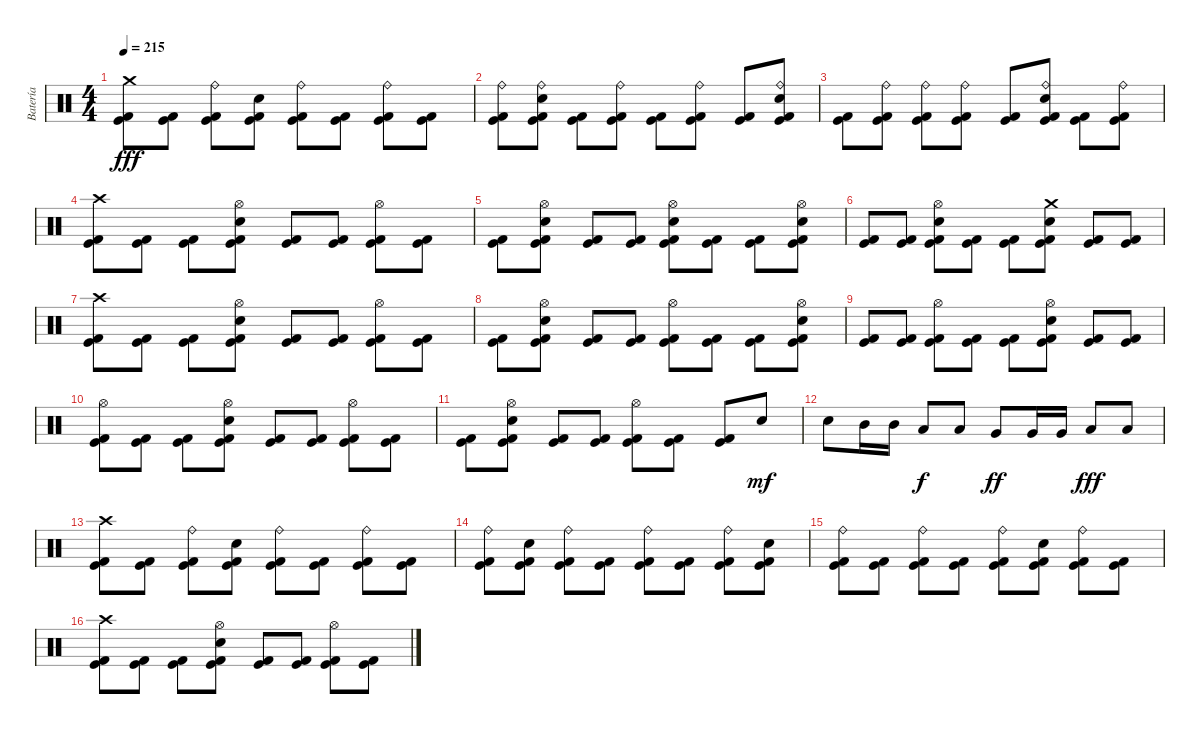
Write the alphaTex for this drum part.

\track ("Batería" "Batería") {instrument percussion}
\staff {score}
\articulation defaults
\ts (4 4)
\tempo 215
\clef neutral
\ks c
("Crash medium (hit)" "Kick (hit) 2" "Kick (hit)").8{dy fff} ("Kick (hit) 2" "Kick (hit)").8 ("Ride (bell)" "Kick (hit) 2" "Kick (hit)").8 ("Electric Snare (hit)" "Kick (hit) 2" "Kick (hit)").8 ("Ride (bell)" "Kick (hit) 2" "Kick (hit)").8 ("Kick (hit) 2" "Kick (hit)").8 ("Ride (bell)" "Kick (hit) 2" "Kick (hit)").8 ("Kick (hit) 2" "Kick (hit)").8 |
("Ride (bell)" "Kick (hit) 2" "Kick (hit)").8 ("Ride (bell)" "Electric Snare (hit)" "Kick (hit) 2" "Kick (hit)").8 ("Kick (hit) 2" "Kick (hit)").8 ("Ride (bell)" "Kick (hit) 2" "Kick (hit)").8 ("Kick (hit) 2" "Kick (hit)").8 ("Ride (bell)" "Kick (hit) 2" "Kick (hit)").8 ("Kick (hit) 2" "Kick (hit)").8 ("Ride (bell)" "Electric Snare (hit)" "Kick (hit) 2" "Kick (hit)").8 |
("Kick (hit) 2" "Kick (hit)").8 ("Ride (bell)" "Kick (hit) 2" "Kick (hit)").8 ("Ride (bell)" "Kick (hit) 2" "Kick (hit)").8 ("Ride (bell)" "Kick (hit) 2" "Kick (hit)").8 ("Kick (hit) 2" "Kick (hit)").8 ("Ride (bell)" "Electric Snare (hit)" "Kick (hit) 2" "Kick (hit)").8 ("Kick (hit) 2" "Kick (hit)").8 ("Ride (bell)" "Kick (hit) 2" "Kick (hit)").8 |
("Crash high (hit)" "Kick (hit) 2" "Kick (hit)").8 ("Kick (hit) 2" "Kick (hit)").8 ("Kick (hit) 2" "Kick (hit)").8 ("Hi-Hat (open)" "Electric Snare (hit)" "Kick (hit) 2" "Kick (hit)").8 ("Kick (hit) 2" "Kick (hit)").8 ("Kick (hit) 2" "Kick (hit)").8 ("Hi-Hat (open)" "Kick (hit) 2" "Kick (hit)").8 ("Kick (hit) 2" "Kick (hit)").8 |
("Kick (hit) 2" "Kick (hit)").8 ("Hi-Hat (open)" "Electric Snare (hit)" "Kick (hit) 2" "Kick (hit)").8 ("Kick (hit) 2" "Kick (hit)").8 ("Kick (hit) 2" "Kick (hit)").8 ("Hi-Hat (open)" "Electric Snare (hit)" "Kick (hit) 2" "Kick (hit)").8 ("Kick (hit) 2" "Kick (hit)").8 ("Kick (hit) 2" "Kick (hit)").8 ("Hi-Hat (open)" "Electric Snare (hit)" "Kick (hit) 2" "Kick (hit)").8 |
("Kick (hit) 2" "Kick (hit)").8 ("Kick (hit) 2" "Kick (hit)").8 ("Hi-Hat (open)" "Electric Snare (hit)" "Kick (hit) 2" "Kick (hit)").8 ("Kick (hit) 2" "Kick (hit)").8 ("Kick (hit) 2" "Kick (hit)").8 ("Crash medium (hit)" "Electric Snare (hit)" "Kick (hit) 2" "Kick (hit)").8 ("Kick (hit) 2" "Kick (hit)").8 ("Kick (hit) 2" "Kick (hit)").8 |
("Crash high (hit)" "Kick (hit) 2" "Kick (hit)").8 ("Kick (hit) 2" "Kick (hit)").8 ("Kick (hit) 2" "Kick (hit)").8 ("Hi-Hat (open)" "Electric Snare (hit)" "Kick (hit) 2" "Kick (hit)").8 ("Kick (hit) 2" "Kick (hit)").8 ("Kick (hit) 2" "Kick (hit)").8 ("Hi-Hat (open)" "Kick (hit) 2" "Kick (hit)").8 ("Kick (hit) 2" "Kick (hit)").8 |
("Kick (hit) 2" "Kick (hit)").8 ("Hi-Hat (open)" "Electric Snare (hit)" "Kick (hit) 2" "Kick (hit)").8 ("Kick (hit) 2" "Kick (hit)").8 ("Kick (hit) 2" "Kick (hit)").8 ("Hi-Hat (open)" "Kick (hit) 2" "Kick (hit)").8 ("Kick (hit) 2" "Kick (hit)").8 ("Kick (hit) 2" "Kick (hit)").8 ("Hi-Hat (open)" "Electric Snare (hit)" "Kick (hit) 2" "Kick (hit)").8 |
("Kick (hit) 2" "Kick (hit)").8 ("Kick (hit) 2" "Kick (hit)").8 ("Hi-Hat (open)" "Kick (hit) 2" "Kick (hit)").8 ("Kick (hit) 2" "Kick (hit)").8 ("Kick (hit) 2" "Kick (hit)").8 ("Hi-Hat (open)" "Electric Snare (hit)" "Kick (hit) 2" "Kick (hit)").8 ("Kick (hit) 2" "Kick (hit)").8 ("Kick (hit) 2" "Kick (hit)").8 |
("Hi-Hat (open)" "Kick (hit) 2" "Kick (hit)").8 ("Kick (hit) 2" "Kick (hit)").8 ("Kick (hit) 2" "Kick (hit)").8 ("Hi-Hat (open)" "Electric Snare (hit)" "Kick (hit) 2" "Kick (hit)").8 ("Kick (hit) 2" "Kick (hit)").8 ("Kick (hit) 2" "Kick (hit)").8 ("Hi-Hat (open)" "Kick (hit) 2" "Kick (hit)").8 ("Kick (hit) 2" "Kick (hit)").8 |
("Kick (hit) 2" "Kick (hit)").8 ("Hi-Hat (open)" "Electric Snare (hit)" "Kick (hit) 2" "Kick (hit)").8 ("Kick (hit) 2" "Kick (hit)").8 ("Kick (hit) 2" "Kick (hit)").8 ("Hi-Hat (open)" "Kick (hit) 2" "Kick (hit)").8 ("Kick (hit) 2" "Kick (hit)").8 ("Kick (hit) 2" "Kick (hit)").8 "Electric Snare (hit)".8{dy mf} |
"Electric Snare (hit)".8 "Mid Tom (hit)".16 "Mid Tom (hit)".16 "Low Tom (hit)".8{dy f} "Low Tom (hit)".8 "Very Low Tom (hit)".8{dy ff} "Very Low Tom (hit)".16 "Very Low Tom (hit)".16 "Low Floor Tom (hit)".8{dy fff} "Low Floor Tom (hit)".8 |
("Crash high (hit)" "Kick (hit) 2" "Kick (hit)").8 ("Kick (hit) 2" "Kick (hit)").8 ("Ride (bell)" "Kick (hit) 2" "Kick (hit)").8 ("Electric Snare (hit)" "Kick (hit) 2" "Kick (hit)").8 ("Ride (bell)" "Kick (hit) 2" "Kick (hit)").8 ("Kick (hit) 2" "Kick (hit)").8 ("Ride (bell)" "Kick (hit) 2" "Kick (hit)").8 ("Kick (hit) 2" "Kick (hit)").8 |
("Ride (bell)" "Kick (hit) 2" "Kick (hit)").8 ("Electric Snare (hit)" "Kick (hit) 2" "Kick (hit)").8 ("Ride (bell)" "Kick (hit) 2" "Kick (hit)").8 ("Kick (hit) 2" "Kick (hit)").8 ("Ride (bell)" "Kick (hit) 2" "Kick (hit)").8 ("Kick (hit) 2" "Kick (hit)").8 ("Ride (bell)" "Kick (hit) 2" "Kick (hit)").8 ("Electric Snare (hit)" "Kick (hit) 2" "Kick (hit)").8 |
("Ride (bell)" "Kick (hit) 2" "Kick (hit)").8 ("Kick (hit) 2" "Kick (hit)").8 ("Ride (bell)" "Kick (hit) 2" "Kick (hit)").8 ("Kick (hit) 2" "Kick (hit)").8 ("Ride (bell)" "Kick (hit) 2" "Kick (hit)").8 ("Electric Snare (hit)" "Kick (hit) 2" "Kick (hit)").8 ("Ride (bell)" "Kick (hit) 2" "Kick (hit)").8 ("Kick (hit) 2" "Kick (hit)").8 |
("Crash high (hit)" "Kick (hit) 2" "Kick (hit)").8 ("Kick (hit) 2" "Kick (hit)").8 ("Kick (hit) 2" "Kick (hit)").8 ("Hi-Hat (open)" "Electric Snare (hit)" "Kick (hit) 2" "Kick (hit)").8 ("Kick (hit) 2" "Kick (hit)").8 ("Kick (hit) 2" "Kick (hit)").8 ("Hi-Hat (open)" "Kick (hit) 2" "Kick (hit)").8 ("Kick (hit) 2" "Kick (hit)").8
